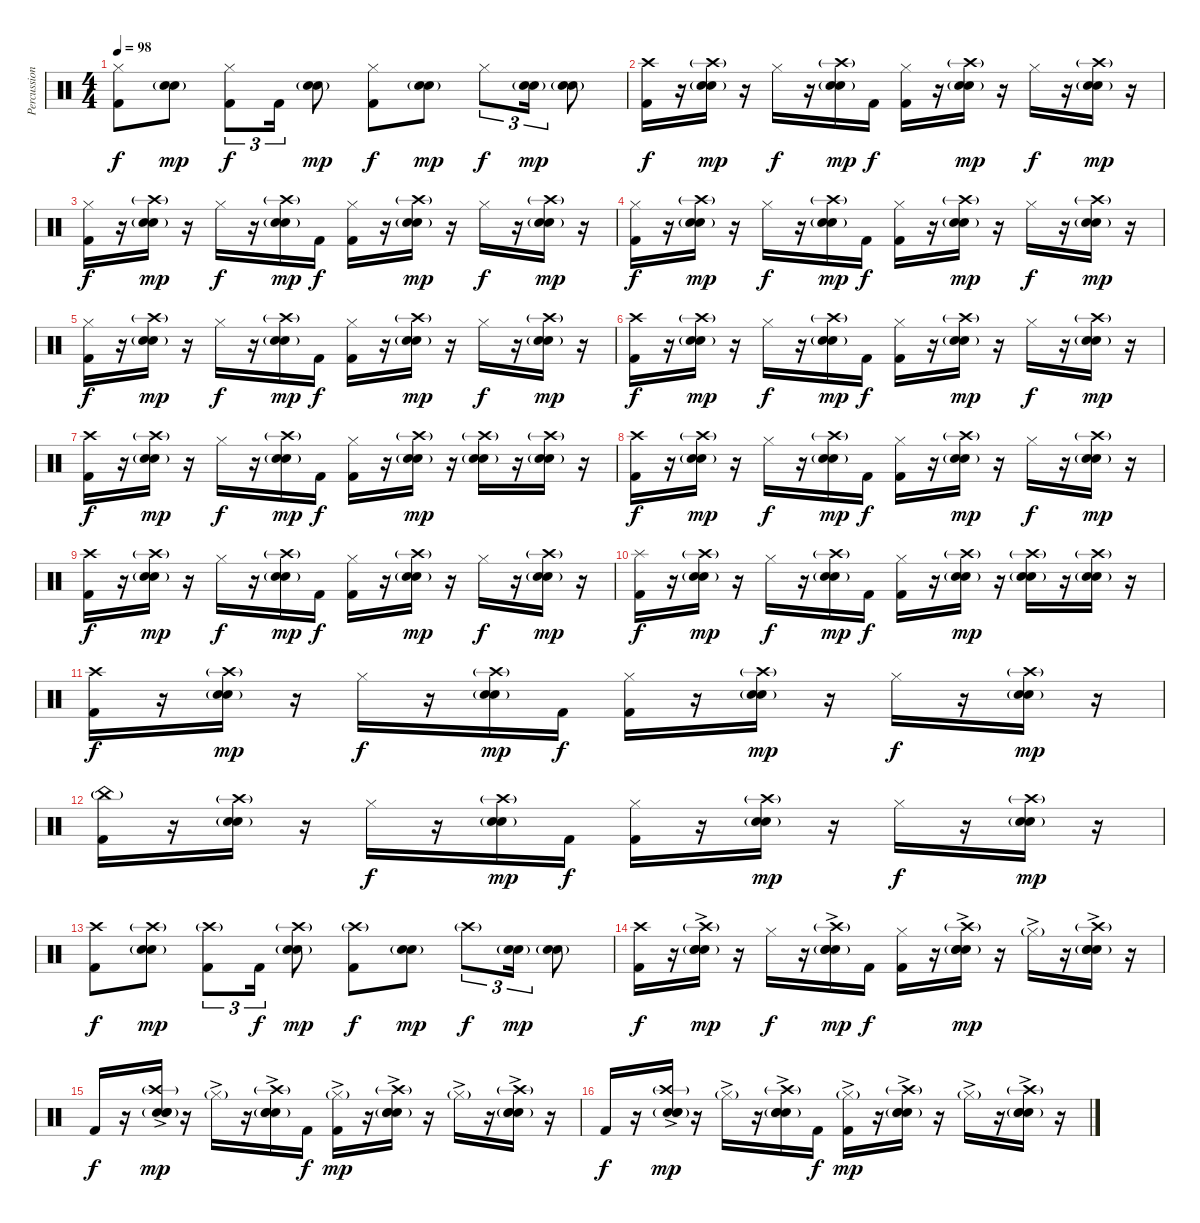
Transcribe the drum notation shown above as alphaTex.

\track ("Percussion" "Percussion") {instrument percussion}
\staff {score}
\articulation defaults
\ts (4 4)
\tempo 98
\clef neutral
\ks c
("Hi-Hat (closed)" "Kick (hit) 2").8{dy f} ("Snare (hit) 2" "Electric Snare (hit)"{g}).8{dy mp} ("Hi-Hat (closed)" "Kick (hit) 2").8{tu (3 2) dy f} "Kick (hit) 2".16{tu (3 2)} ("Snare (hit) 2" "Electric Snare (hit)"{g}).8{dy mp} ("Hi-Hat (closed)" "Kick (hit) 2").8{dy f} ("Snare (hit) 2" "Electric Snare (hit)"{g}).8{dy mp} "Hi-Hat (closed)".8{tu (3 2) dy f} ("Snare (hit) 2" "Electric Snare (hit)"{g}).16{tu (3 2) dy mp} ("Snare (hit) 2" "Electric Snare (hit)"{g}).8 |
("Crash high (hit)" "Kick (hit) 2").16{dy f} r.16 ("Snare (hit) 2" "Crash high (hit)"{g} "Electric Snare (hit)"{g}).16{dy mp} r.16 "Hi-Hat (closed)".16{dy f} r.16 ("Snare (hit) 2" "Crash high (hit)"{g} "Electric Snare (hit)"{g}).16{dy mp} "Kick (hit) 2".16{dy f} ("Hi-Hat (closed)" "Kick (hit) 2").16 r.16 ("Snare (hit) 2" "Crash high (hit)"{g} "Electric Snare (hit)"{g}).16{dy mp} r.16 "Hi-Hat (closed)".16{dy f} r.16 ("Snare (hit) 2" "Crash high (hit)"{g} "Electric Snare (hit)"{g}).16{dy mp} r.16 |
("Hi-Hat (closed)" "Kick (hit) 2").16{dy f} r.16 ("Snare (hit) 2" "Crash high (hit)"{g} "Electric Snare (hit)"{g}).16{dy mp} r.16 "Hi-Hat (closed)".16{dy f} r.16 ("Snare (hit) 2" "Crash high (hit)"{g} "Electric Snare (hit)"{g}).16{dy mp} "Kick (hit) 2".16{dy f} ("Hi-Hat (closed)" "Kick (hit) 2").16 r.16 ("Snare (hit) 2" "Crash high (hit)"{g} "Electric Snare (hit)"{g}).16{dy mp} r.16 "Hi-Hat (closed)".16{dy f} r.16 ("Snare (hit) 2" "Crash high (hit)"{g} "Electric Snare (hit)"{g}).16{dy mp} r.16 |
("Hi-Hat (closed)" "Kick (hit) 2").16{dy f} r.16 ("Snare (hit) 2" "Crash high (hit)"{g} "Electric Snare (hit)"{g}).16{dy mp} r.16 "Hi-Hat (closed)".16{dy f} r.16 ("Snare (hit) 2" "Crash high (hit)"{g} "Electric Snare (hit)"{g}).16{dy mp} "Kick (hit) 2".16{dy f} ("Hi-Hat (closed)" "Kick (hit) 2").16 r.16 ("Snare (hit) 2" "Crash high (hit)"{g} "Electric Snare (hit)"{g}).16{dy mp} r.16 "Hi-Hat (closed)".16{dy f} r.16 ("Snare (hit) 2" "Crash high (hit)"{g} "Electric Snare (hit)"{g}).16{dy mp} r.16 |
("Hi-Hat (closed)" "Kick (hit) 2").16{dy f} r.16 ("Snare (hit) 2" "Crash high (hit)"{g} "Electric Snare (hit)"{g}).16{dy mp} r.16 "Hi-Hat (closed)".16{dy f} r.16 ("Snare (hit) 2" "Crash high (hit)"{g} "Electric Snare (hit)"{g}).16{dy mp} "Kick (hit) 2".16{dy f} ("Hi-Hat (closed)" "Kick (hit) 2").16 r.16 ("Snare (hit) 2" "Crash high (hit)"{g} "Electric Snare (hit)"{g}).16{dy mp} r.16 "Hi-Hat (closed)".16{dy f} r.16 ("Snare (hit) 2" "Crash high (hit)"{g} "Electric Snare (hit)"{g}).16{dy mp} r.16 |
("Crash high (hit)" "Kick (hit) 2").16{dy f} r.16 ("Snare (hit) 2" "Crash high (hit)"{g} "Electric Snare (hit)"{g}).16{dy mp} r.16 "Hi-Hat (closed)".16{dy f} r.16 ("Snare (hit) 2" "Crash high (hit)"{g} "Electric Snare (hit)"{g}).16{dy mp} "Kick (hit) 2".16{dy f} ("Hi-Hat (closed)" "Kick (hit) 2").16 r.16 ("Snare (hit) 2" "Crash high (hit)"{g} "Electric Snare (hit)"{g}).16{dy mp} r.16 "Hi-Hat (closed)".16{dy f} r.16 ("Snare (hit) 2" "Crash high (hit)"{g} "Electric Snare (hit)"{g}).16{dy mp} r.16 |
("Crash high (hit)" "Kick (hit) 2").16{dy f} r.16 ("Snare (hit) 2" "Crash high (hit)"{g} "Electric Snare (hit)"{g}).16{dy mp} r.16 "Hi-Hat (closed)".16{dy f} r.16 ("Snare (hit) 2" "Crash high (hit)"{g} "Electric Snare (hit)"{g}).16{dy mp} "Kick (hit) 2".16{dy f} ("Hi-Hat (closed)" "Kick (hit) 2").16 r.16 ("Snare (hit) 2" "Crash high (hit)"{g} "Electric Snare (hit)"{g}).16{dy mp} r.16 ("Snare (hit) 2" "Crash high (hit)"{g} "Electric Snare (hit)"{g}).16 r.16 ("Snare (hit) 2" "Crash high (hit)"{g} "Electric Snare (hit)"{g}).16 r.16 |
("Crash high (hit)" "Kick (hit) 2").16{dy f} r.16 ("Snare (hit) 2" "Crash high (hit)"{g} "Electric Snare (hit)"{g}).16{dy mp} r.16 "Hi-Hat (closed)".16{dy f} r.16 ("Snare (hit) 2" "Crash high (hit)"{g} "Electric Snare (hit)"{g}).16{dy mp} "Kick (hit) 2".16{dy f} ("Hi-Hat (closed)" "Kick (hit) 2").16 r.16 ("Snare (hit) 2" "Crash high (hit)"{g} "Electric Snare (hit)"{g}).16{dy mp} r.16 "Hi-Hat (closed)".16{dy f} r.16 ("Snare (hit) 2" "Crash high (hit)"{g} "Electric Snare (hit)"{g}).16{dy mp} r.16 |
("Crash high (hit)" "Kick (hit) 2").16{dy f} r.16 ("Snare (hit) 2" "Crash high (hit)"{g} "Electric Snare (hit)"{g}).16{dy mp} r.16 "Hi-Hat (closed)".16{dy f} r.16 ("Snare (hit) 2" "Crash high (hit)"{g} "Electric Snare (hit)"{g}).16{dy mp} "Kick (hit) 2".16{dy f} ("Hi-Hat (closed)" "Kick (hit) 2").16 r.16 ("Snare (hit) 2" "Crash high (hit)"{g} "Electric Snare (hit)"{g}).16{dy mp} r.16 "Hi-Hat (closed)".16{dy f} r.16 ("Snare (hit) 2" "Crash high (hit)"{g} "Electric Snare (hit)"{g}).16{dy mp} r.16 |
("Splash (hit)" "Kick (hit) 2").16{dy f} r.16 ("Snare (hit) 2" "Crash high (hit)"{g} "Electric Snare (hit)"{g}).16{dy mp} r.16 "Hi-Hat (closed)".16{dy f} r.16 ("Snare (hit) 2" "Crash high (hit)"{g} "Electric Snare (hit)"{g}).16{dy mp} "Kick (hit) 2".16{dy f} ("Hi-Hat (closed)" "Kick (hit) 2").16 r.16 ("Snare (hit) 2" "Crash high (hit)"{g} "Electric Snare (hit)"{g}).16{dy mp} r.16 ("Snare (hit) 2" "Crash high (hit)"{g} "Electric Snare (hit)"{g}).16 r.16 ("Snare (hit) 2" "Crash high (hit)"{g} "Electric Snare (hit)"{g}).16 r.16 |
("Crash high (hit)" "Kick (hit) 2").16{dy f} r.16 ("Snare (hit) 2" "Crash high (hit)"{g} "Electric Snare (hit)"{g}).16{dy mp} r.16 "Hi-Hat (closed)".16{dy f} r.16 ("Snare (hit) 2" "Crash high (hit)"{g} "Electric Snare (hit)"{g}).16{dy mp} "Kick (hit) 2".16{dy f} ("Hi-Hat (closed)" "Kick (hit) 2").16 r.16 ("Snare (hit) 2" "Crash high (hit)"{g} "Electric Snare (hit)"{g}).16{dy mp} r.16 "Hi-Hat (closed)".16{dy f} r.16 ("Snare (hit) 2" "Crash high (hit)"{g} "Electric Snare (hit)"{g}).16{dy mp} r.16 |
("China (hit)"{g} "Kick (hit) 2").16 r.16 ("Snare (hit) 2" "Crash high (hit)"{g} "Electric Snare (hit)"{g}).16 r.16 "Hi-Hat (closed)".16{dy f} r.16 ("Snare (hit) 2" "Crash high (hit)"{g} "Electric Snare (hit)"{g}).16{dy mp} "Kick (hit) 2".16{dy f} ("Hi-Hat (closed)" "Kick (hit) 2").16 r.16 ("Snare (hit) 2" "Crash high (hit)"{g} "Electric Snare (hit)"{g}).16{dy mp} r.16 "Hi-Hat (closed)".16{dy f} r.16 ("Snare (hit) 2" "Crash high (hit)"{g} "Electric Snare (hit)"{g}).16{dy mp} r.16 |
("Crash high (hit)" "Kick (hit) 2").8{dy f} ("Crash high (hit)"{g} "Snare (hit) 2" "Electric Snare (hit)"{g}).8{dy mp} ("Crash high (hit)"{g} "Kick (hit) 2").8{tu (3 2)} "Kick (hit) 2".16{tu (3 2) dy f} ("Crash high (hit)"{g} "Snare (hit) 2" "Electric Snare (hit)"{g}).8{dy mp} ("Crash high (hit)"{g} "Kick (hit) 2").8{dy f} ("Snare (hit) 2" "Electric Snare (hit)"{g}).8{dy mp} "Crash high (hit)"{g}.8{tu (3 2) dy f} ("Snare (hit) 2" "Electric Snare (hit)"{g}).16{tu (3 2) dy mp} ("Snare (hit) 2" "Electric Snare (hit)"{g}).8 |
("Crash high (hit)" "Kick (hit) 2").16{dy f} r.16 ("Snare (hit) 2" "Hand Clap (hit)"{ac} "Crash high (hit)"{g} "Electric Snare (hit)"{g}).16{dy mp} r.16 "Hi-Hat (closed)".16{dy f} r.16 ("Snare (hit) 2" "Hand Clap (hit)"{ac} "Crash high (hit)"{g} "Electric Snare (hit)"{g}).16{dy mp} "Kick (hit) 2".16{dy f} ("Hi-Hat (closed)" "Kick (hit) 2").16 r.16 ("Snare (hit) 2" "Hand Clap (hit)"{ac} "Crash high (hit)"{g} "Electric Snare (hit)"{g}).16{dy mp} r.16 "Hi-Hat (closed)"{g ac}.16 r.16 ("Snare (hit) 2" "Hand Clap (hit)"{ac} "Crash high (hit)"{g} "Electric Snare (hit)"{g}).16 r.16 |
"Kick (hit) 2".16{dy f} r.16 ("Snare (hit) 2" "Hand Clap (hit)"{ac} "Crash high (hit)"{g} "Electric Snare (hit)"{g}).16{dy mp} r.16 "Hi-Hat (closed)"{g ac}.16 r.16 ("Snare (hit) 2" "Hand Clap (hit)"{ac} "Crash high (hit)"{g} "Electric Snare (hit)"{g}).16 "Kick (hit) 2".16{dy f} ("Hi-Hat (closed)"{g ac} "Kick (hit) 2").16{dy mp} r.16 ("Snare (hit) 2" "Hand Clap (hit)"{ac} "Crash high (hit)"{g} "Electric Snare (hit)"{g}).16 r.16 "Hi-Hat (closed)"{g ac}.16 r.16 ("Snare (hit) 2" "Hand Clap (hit)"{ac} "Crash high (hit)"{g} "Electric Snare (hit)"{g}).16 r.16 |
"Kick (hit) 2".16{dy f} r.16 ("Snare (hit) 2" "Hand Clap (hit)"{ac} "Crash high (hit)"{g} "Electric Snare (hit)"{g ac}).16{dy mp} r.16 "Hi-Hat (closed)"{g ac}.16 r.16 ("Snare (hit) 2" "Hand Clap (hit)"{ac} "Crash high (hit)"{g} "Electric Snare (hit)"{g ac}).16 "Kick (hit) 2".16{dy f} ("Hi-Hat (closed)"{g ac} "Kick (hit) 2").16{dy mp} r.16 ("Snare (hit) 2" "Hand Clap (hit)"{ac} "Crash high (hit)"{g} "Electric Snare (hit)"{g ac}).16 r.16 "Hi-Hat (closed)"{g ac}.16 r.16 ("Snare (hit) 2" "Hand Clap (hit)"{ac} "Crash high (hit)"{g} "Electric Snare (hit)"{g ac}).16 r.16
